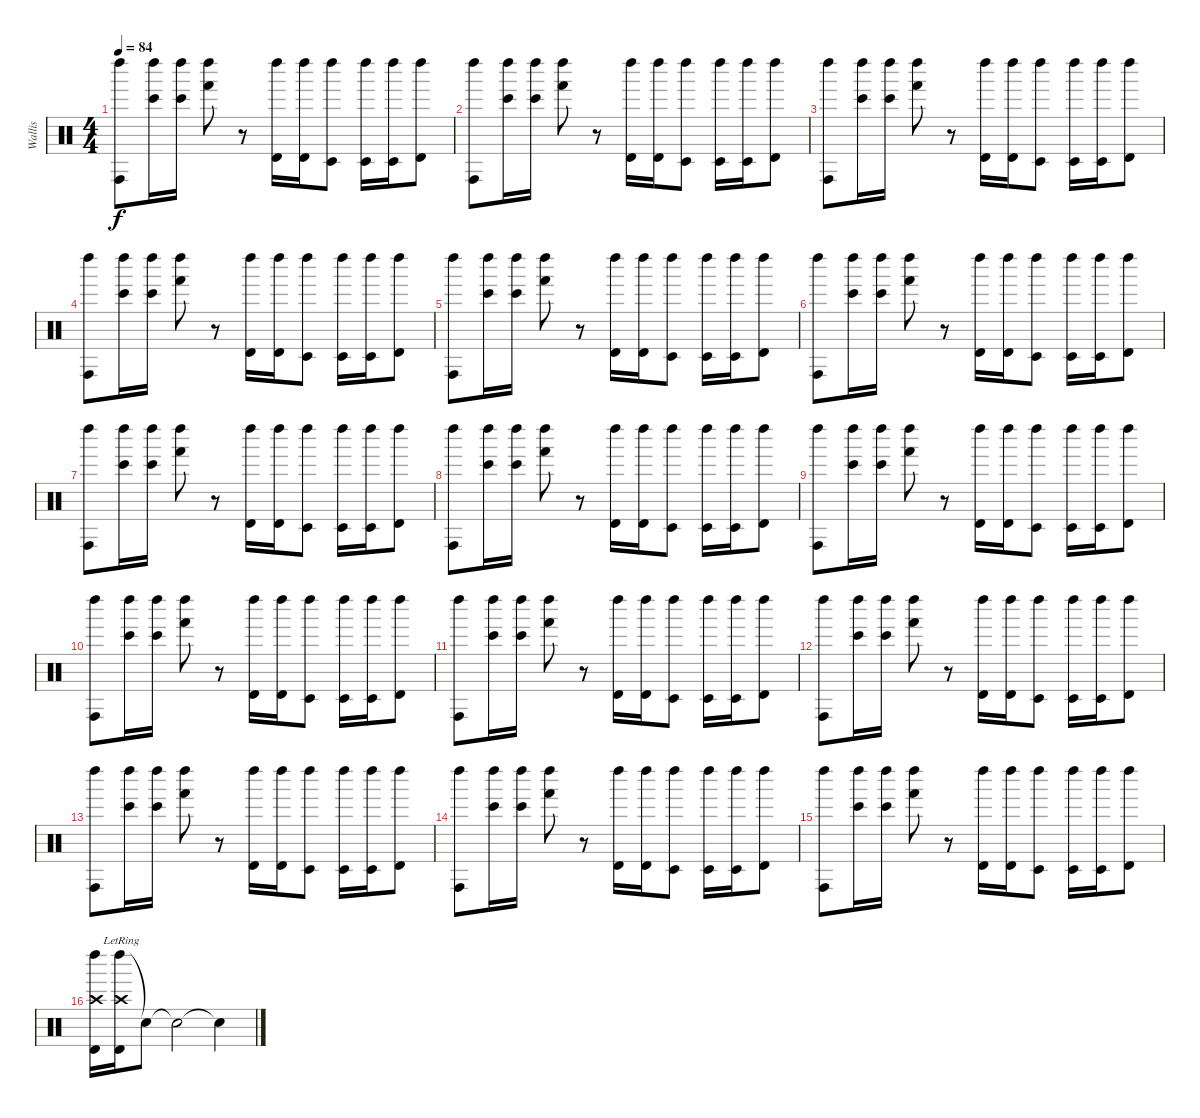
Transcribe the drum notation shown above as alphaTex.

\track ("Wallis" "Wallis") {instrument percussion}
\staff {score}
\articulation defaults
\ts (4 4)
\tempo 84
\clef neutral
\ks c
("Left Maraca (hit)" "Conga high (hit)").8{dy f} ("Left Maraca (hit)" "Bongo High (hit)").16 ("Left Maraca (hit)" "Bongo High (hit)").16 ("Left Maraca (hit)" "Hand (hit)").8 r.8 ("Left Maraca (hit)" "Timbale high (hit)").16 ("Left Maraca (hit)" "Timbale high (hit)").16 ("Left Maraca (hit)" "Timbale low (hit)").8 ("Left Maraca (hit)" "Timbale low (hit)").16 ("Left Maraca (hit)" "Timbale low (hit)").16 ("Left Maraca (hit)" "Timbale high (hit)").8 |
("Left Maraca (hit)" "Conga high (hit)").8 ("Left Maraca (hit)" "Bongo High (hit)").16 ("Left Maraca (hit)" "Bongo High (hit)").16 ("Left Maraca (hit)" "Hand (hit)").8 r.8 ("Left Maraca (hit)" "Timbale high (hit)").16 ("Left Maraca (hit)" "Timbale high (hit)").16 ("Left Maraca (hit)" "Timbale low (hit)").8 ("Left Maraca (hit)" "Timbale low (hit)").16 ("Left Maraca (hit)" "Timbale low (hit)").16 ("Left Maraca (hit)" "Timbale high (hit)").8 |
("Left Maraca (hit)" "Conga high (hit)").8 ("Left Maraca (hit)" "Bongo High (hit)").16 ("Left Maraca (hit)" "Bongo High (hit)").16 ("Left Maraca (hit)" "Hand (hit)").8 r.8 ("Left Maraca (hit)" "Timbale high (hit)").16 ("Left Maraca (hit)" "Timbale high (hit)").16 ("Left Maraca (hit)" "Timbale low (hit)").8 ("Left Maraca (hit)" "Timbale low (hit)").16 ("Left Maraca (hit)" "Timbale low (hit)").16 ("Left Maraca (hit)" "Timbale high (hit)").8 |
("Left Maraca (hit)" "Conga high (hit)").8 ("Left Maraca (hit)" "Bongo High (hit)").16 ("Left Maraca (hit)" "Bongo High (hit)").16 ("Left Maraca (hit)" "Hand (hit)").8 r.8 ("Left Maraca (hit)" "Timbale high (hit)").16 ("Left Maraca (hit)" "Timbale high (hit)").16 ("Left Maraca (hit)" "Timbale low (hit)").8 ("Left Maraca (hit)" "Timbale low (hit)").16 ("Left Maraca (hit)" "Timbale low (hit)").16 ("Left Maraca (hit)" "Timbale high (hit)").8 |
("Left Maraca (hit)" "Conga high (hit)").8 ("Left Maraca (hit)" "Bongo High (hit)").16 ("Left Maraca (hit)" "Bongo High (hit)").16 ("Left Maraca (hit)" "Hand (hit)").8 r.8 ("Left Maraca (hit)" "Timbale high (hit)").16 ("Left Maraca (hit)" "Timbale high (hit)").16 ("Left Maraca (hit)" "Timbale low (hit)").8 ("Left Maraca (hit)" "Timbale low (hit)").16 ("Left Maraca (hit)" "Timbale low (hit)").16 ("Left Maraca (hit)" "Timbale high (hit)").8 |
("Left Maraca (hit)" "Conga high (hit)").8 ("Left Maraca (hit)" "Bongo High (hit)").16 ("Left Maraca (hit)" "Bongo High (hit)").16 ("Left Maraca (hit)" "Hand (hit)").8 r.8 ("Left Maraca (hit)" "Timbale high (hit)").16 ("Left Maraca (hit)" "Timbale high (hit)").16 ("Left Maraca (hit)" "Timbale low (hit)").8 ("Left Maraca (hit)" "Timbale low (hit)").16 ("Left Maraca (hit)" "Timbale low (hit)").16 ("Left Maraca (hit)" "Timbale high (hit)").8 |
("Left Maraca (hit)" "Conga high (hit)").8 ("Left Maraca (hit)" "Bongo High (hit)").16 ("Left Maraca (hit)" "Bongo High (hit)").16 ("Left Maraca (hit)" "Hand (hit)").8 r.8 ("Left Maraca (hit)" "Timbale high (hit)").16 ("Left Maraca (hit)" "Timbale high (hit)").16 ("Left Maraca (hit)" "Timbale low (hit)").8 ("Left Maraca (hit)" "Timbale low (hit)").16 ("Left Maraca (hit)" "Timbale low (hit)").16 ("Left Maraca (hit)" "Timbale high (hit)").8 |
("Left Maraca (hit)" "Conga high (hit)").8 ("Left Maraca (hit)" "Bongo High (hit)").16 ("Left Maraca (hit)" "Bongo High (hit)").16 ("Left Maraca (hit)" "Hand (hit)").8 r.8 ("Left Maraca (hit)" "Timbale high (hit)").16 ("Left Maraca (hit)" "Timbale high (hit)").16 ("Left Maraca (hit)" "Timbale low (hit)").8 ("Left Maraca (hit)" "Timbale low (hit)").16 ("Left Maraca (hit)" "Timbale low (hit)").16 ("Left Maraca (hit)" "Timbale high (hit)").8 |
("Left Maraca (hit)" "Conga high (hit)").8 ("Left Maraca (hit)" "Bongo High (hit)").16 ("Left Maraca (hit)" "Bongo High (hit)").16 ("Left Maraca (hit)" "Hand (hit)").8 r.8 ("Left Maraca (hit)" "Timbale high (hit)").16 ("Left Maraca (hit)" "Timbale high (hit)").16 ("Left Maraca (hit)" "Timbale low (hit)").8 ("Left Maraca (hit)" "Timbale low (hit)").16 ("Left Maraca (hit)" "Timbale low (hit)").16 ("Left Maraca (hit)" "Timbale high (hit)").8 |
("Left Maraca (hit)" "Conga high (hit)").8 ("Left Maraca (hit)" "Bongo High (hit)").16 ("Left Maraca (hit)" "Bongo High (hit)").16 ("Left Maraca (hit)" "Hand (hit)").8 r.8 ("Left Maraca (hit)" "Timbale high (hit)").16 ("Left Maraca (hit)" "Timbale high (hit)").16 ("Left Maraca (hit)" "Timbale low (hit)").8 ("Left Maraca (hit)" "Timbale low (hit)").16 ("Left Maraca (hit)" "Timbale low (hit)").16 ("Left Maraca (hit)" "Timbale high (hit)").8 |
("Left Maraca (hit)" "Conga high (hit)").8 ("Left Maraca (hit)" "Bongo High (hit)").16 ("Left Maraca (hit)" "Bongo High (hit)").16 ("Left Maraca (hit)" "Hand (hit)").8 r.8 ("Left Maraca (hit)" "Timbale high (hit)").16 ("Left Maraca (hit)" "Timbale high (hit)").16 ("Left Maraca (hit)" "Timbale low (hit)").8 ("Left Maraca (hit)" "Timbale low (hit)").16 ("Left Maraca (hit)" "Timbale low (hit)").16 ("Left Maraca (hit)" "Timbale high (hit)").8 |
("Left Maraca (hit)" "Conga high (hit)").8 ("Left Maraca (hit)" "Bongo High (hit)").16 ("Left Maraca (hit)" "Bongo High (hit)").16 ("Left Maraca (hit)" "Hand (hit)").8 r.8 ("Left Maraca (hit)" "Timbale high (hit)").16 ("Left Maraca (hit)" "Timbale high (hit)").16 ("Left Maraca (hit)" "Timbale low (hit)").8 ("Left Maraca (hit)" "Timbale low (hit)").16 ("Left Maraca (hit)" "Timbale low (hit)").16 ("Left Maraca (hit)" "Timbale high (hit)").8 |
("Left Maraca (hit)" "Conga high (hit)").8 ("Left Maraca (hit)" "Bongo High (hit)").16 ("Left Maraca (hit)" "Bongo High (hit)").16 ("Left Maraca (hit)" "Hand (hit)").8 r.8 ("Left Maraca (hit)" "Timbale high (hit)").16 ("Left Maraca (hit)" "Timbale high (hit)").16 ("Left Maraca (hit)" "Timbale low (hit)").8 ("Left Maraca (hit)" "Timbale low (hit)").16 ("Left Maraca (hit)" "Timbale low (hit)").16 ("Left Maraca (hit)" "Timbale high (hit)").8 |
("Left Maraca (hit)" "Conga high (hit)").8 ("Left Maraca (hit)" "Bongo High (hit)").16 ("Left Maraca (hit)" "Bongo High (hit)").16 ("Left Maraca (hit)" "Hand (hit)").8 r.8 ("Left Maraca (hit)" "Timbale high (hit)").16 ("Left Maraca (hit)" "Timbale high (hit)").16 ("Left Maraca (hit)" "Timbale low (hit)").8 ("Left Maraca (hit)" "Timbale low (hit)").16 ("Left Maraca (hit)" "Timbale low (hit)").16 ("Left Maraca (hit)" "Timbale high (hit)").8 |
("Left Maraca (hit)" "Conga high (hit)").8 ("Left Maraca (hit)" "Bongo High (hit)").16 ("Left Maraca (hit)" "Bongo High (hit)").16 ("Left Maraca (hit)" "Hand (hit)").8 r.8 ("Left Maraca (hit)" "Timbale high (hit)").16 ("Left Maraca (hit)" "Timbale high (hit)").16 ("Left Maraca (hit)" "Timbale low (hit)").8 ("Left Maraca (hit)" "Timbale low (hit)").16 ("Left Maraca (hit)" "Timbale low (hit)").16 ("Left Maraca (hit)" "Timbale high (hit)").8 |
("Left Maraca (hit)" "Timbale high (hit)" "Crash high (hit)").16 ("Left Maraca (hit)" "Timbale high (hit)" "Crash high (hit)"{lr}).16 "Snare (hit)"{t}.8 "Snare (hit)"{t}.2 "Snare (hit)"{t}.4
